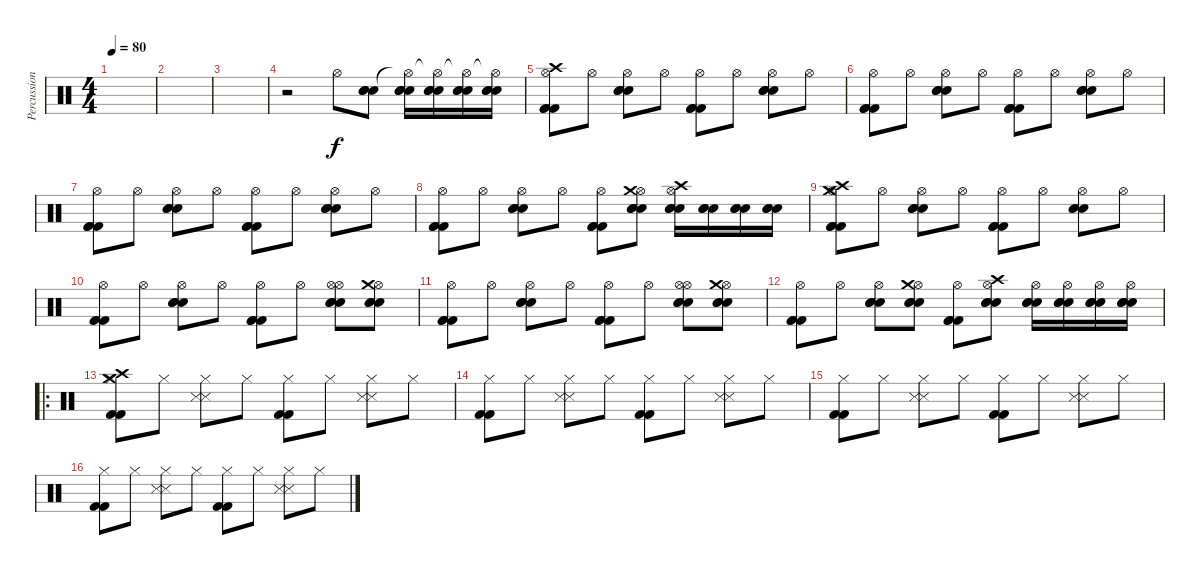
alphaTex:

\track ("Percussion" "Percussion") {instrument percussion}
\staff {score}
\articulation defaults
\ts (4 4)
\tempo 80
\clef neutral
\ks c
|
|
|
r.2 "Hi-Hat (open)".8 ("Electric Snare (hit)" "Electric Snare (hit)" "Electric Snare (hit)").8 ("Hi-Hat (open)"{t} "Electric Snare (hit)" "Electric Snare (hit)" "Electric Snare (hit)").16 ("Hi-Hat (open)"{t} "Electric Snare (hit)" "Electric Snare (hit)" "Electric Snare (hit)").16 ("Hi-Hat (open)"{t} "Electric Snare (hit)" "Electric Snare (hit)" "Electric Snare (hit)").16 ("Hi-Hat (open)"{t} "Electric Snare (hit)" "Electric Snare (hit)" "Electric Snare (hit)").16 |
("Hi-Hat (open)" "Kick (hit) 2" "Kick (hit) 2" "Kick (hit) 2" "Crash high (hit)").8 "Hi-Hat (open)".8 ("Hi-Hat (open)" "Electric Snare (hit)" "Electric Snare (hit)" "Electric Snare (hit)").8 "Hi-Hat (open)".8 ("Hi-Hat (open)" "Kick (hit) 2" "Kick (hit) 2" "Kick (hit) 2").8 "Hi-Hat (open)".8 ("Hi-Hat (open)" "Electric Snare (hit)" "Electric Snare (hit)" "Electric Snare (hit)").8 "Hi-Hat (open)".8 |
("Hi-Hat (open)" "Kick (hit) 2" "Kick (hit) 2" "Kick (hit) 2").8 "Hi-Hat (open)".8 ("Hi-Hat (open)" "Electric Snare (hit)" "Electric Snare (hit)" "Electric Snare (hit)").8 "Hi-Hat (open)".8 ("Hi-Hat (open)" "Kick (hit) 2" "Kick (hit) 2" "Kick (hit) 2").8 "Hi-Hat (open)".8 ("Hi-Hat (open)" "Electric Snare (hit)" "Electric Snare (hit)" "Electric Snare (hit)").8 "Hi-Hat (open)".8 |
("Hi-Hat (open)" "Kick (hit) 2" "Kick (hit) 2" "Kick (hit) 2").8 "Hi-Hat (open)".8 ("Hi-Hat (open)" "Electric Snare (hit)" "Electric Snare (hit)" "Electric Snare (hit)").8 "Hi-Hat (open)".8 ("Hi-Hat (open)" "Kick (hit) 2" "Kick (hit) 2" "Kick (hit) 2").8 "Hi-Hat (open)".8 ("Hi-Hat (open)" "Electric Snare (hit)" "Electric Snare (hit)" "Electric Snare (hit)").8 "Hi-Hat (open)".8 |
("Hi-Hat (open)" "Kick (hit) 2" "Kick (hit) 2" "Kick (hit) 2").8 "Hi-Hat (open)".8 ("Hi-Hat (open)" "Electric Snare (hit)" "Electric Snare (hit)" "Electric Snare (hit)").8 "Hi-Hat (open)".8 ("Hi-Hat (open)" "Kick (hit) 2" "Kick (hit) 2" "Kick (hit) 2").8 ("Hi-Hat (open)" "Electric Snare (hit)" "Electric Snare (hit)" "Electric Snare (hit)" "Crash medium (hit)").8 ("Hi-Hat (open)" "Electric Snare (hit)" "Electric Snare (hit)" "Electric Snare (hit)" "Crash high (hit)").16 ("Electric Snare (hit)" "Electric Snare (hit)" "Electric Snare (hit)").16 ("Electric Snare (hit)" "Electric Snare (hit)" "Electric Snare (hit)").16 ("Electric Snare (hit)" "Electric Snare (hit)" "Electric Snare (hit)").16 |
("Hi-Hat (open)" "Kick (hit) 2" "Kick (hit) 2" "Kick (hit) 2" "Crash high (hit)" "Crash medium (hit)").8 "Hi-Hat (open)".8 ("Hi-Hat (open)" "Electric Snare (hit)" "Electric Snare (hit)" "Electric Snare (hit)").8 "Hi-Hat (open)".8 ("Hi-Hat (open)" "Kick (hit) 2" "Kick (hit) 2" "Kick (hit) 2").8 "Hi-Hat (open)".8 ("Hi-Hat (open)" "Electric Snare (hit)" "Electric Snare (hit)" "Electric Snare (hit)").8 "Hi-Hat (open)".8 |
("Hi-Hat (open)" "Kick (hit) 2" "Kick (hit) 2" "Kick (hit) 2").8 "Hi-Hat (open)".8 ("Hi-Hat (open)" "Electric Snare (hit)" "Electric Snare (hit)" "Electric Snare (hit)").8 "Hi-Hat (open)".8 ("Hi-Hat (open)" "Kick (hit) 2" "Kick (hit) 2" "Kick (hit) 2").8 "Hi-Hat (open)".8 ("Hi-Hat (open)" "Electric Snare (hit)" "Electric Snare (hit)" "Electric Snare (hit)" "Hi-Hat (open)").8 ("Hi-Hat (open)" "Electric Snare (hit)" "Electric Snare (hit)" "Electric Snare (hit)" "Crash medium (hit)").8 |
("Hi-Hat (open)" "Kick (hit) 2" "Kick (hit) 2" "Kick (hit) 2").8 "Hi-Hat (open)".8 ("Hi-Hat (open)" "Electric Snare (hit)" "Electric Snare (hit)" "Electric Snare (hit)").8 "Hi-Hat (open)".8 ("Hi-Hat (open)" "Kick (hit) 2" "Kick (hit) 2" "Kick (hit) 2").8 "Hi-Hat (open)".8 ("Hi-Hat (open)" "Electric Snare (hit)" "Electric Snare (hit)" "Electric Snare (hit)" "Hi-Hat (open)").8 ("Hi-Hat (open)" "Electric Snare (hit)" "Electric Snare (hit)" "Electric Snare (hit)" "Crash medium (hit)").8 |
("Hi-Hat (open)" "Kick (hit) 2" "Kick (hit) 2" "Kick (hit) 2").8 "Hi-Hat (open)".8 ("Hi-Hat (open)" "Electric Snare (hit)" "Electric Snare (hit)" "Electric Snare (hit)").8 ("Hi-Hat (open)" "Electric Snare (hit)" "Electric Snare (hit)" "Electric Snare (hit)" "Crash medium (hit)").8 ("Hi-Hat (open)" "Kick (hit) 2" "Kick (hit) 2" "Kick (hit) 2").8 ("Hi-Hat (open)" "Electric Snare (hit)" "Electric Snare (hit)" "Electric Snare (hit)" "Crash high (hit)").8 ("Hi-Hat (open)" "Electric Snare (hit)" "Electric Snare (hit)" "Electric Snare (hit)").16 ("Hi-Hat (open)" "Electric Snare (hit)" "Electric Snare (hit)" "Electric Snare (hit)").16 ("Hi-Hat (open)" "Electric Snare (hit)" "Electric Snare (hit)" "Electric Snare (hit)").16 ("Hi-Hat (open)" "Electric Snare (hit)" "Electric Snare (hit)" "Electric Snare (hit)").16 |
\ro
("Hi-Hat (closed)" "Kick (hit) 2" "Kick (hit) 2" "Crash high (hit)" "Crash medium (hit)").8 "Hi-Hat (closed)".8 ("Hi-Hat (closed)" "Snare (side stick) 3" "Snare (side stick) 3").8 "Hi-Hat (closed)".8 ("Hi-Hat (closed)" "Kick (hit) 2" "Kick (hit) 2").8 "Hi-Hat (closed)".8 ("Hi-Hat (closed)" "Snare (side stick) 3" "Snare (side stick) 3").8 "Hi-Hat (closed)".8 |
("Hi-Hat (closed)" "Kick (hit) 2" "Kick (hit) 2").8 "Hi-Hat (closed)".8 ("Hi-Hat (closed)" "Snare (side stick) 3" "Snare (side stick) 3").8 "Hi-Hat (closed)".8 ("Hi-Hat (closed)" "Kick (hit) 2" "Kick (hit) 2").8 "Hi-Hat (closed)".8 ("Hi-Hat (closed)" "Snare (side stick) 3" "Snare (side stick) 3").8 "Hi-Hat (closed)".8 |
("Hi-Hat (closed)" "Kick (hit) 2" "Kick (hit) 2").8 "Hi-Hat (closed)".8 ("Hi-Hat (closed)" "Snare (side stick) 3" "Snare (side stick) 3").8 "Hi-Hat (closed)".8 ("Hi-Hat (closed)" "Kick (hit) 2" "Kick (hit) 2").8 "Hi-Hat (closed)".8 ("Hi-Hat (closed)" "Snare (side stick) 3" "Snare (side stick) 3").8 "Hi-Hat (closed)".8 |
("Hi-Hat (closed)" "Kick (hit) 2" "Kick (hit) 2").8 "Hi-Hat (closed)".8 ("Hi-Hat (closed)" "Snare (side stick) 3" "Snare (side stick) 3").8 "Hi-Hat (closed)".8 ("Hi-Hat (closed)" "Kick (hit) 2" "Kick (hit) 2").8 "Hi-Hat (closed)".8 ("Hi-Hat (closed)" "Snare (side stick) 3" "Snare (side stick) 3").8 "Hi-Hat (closed)".8
